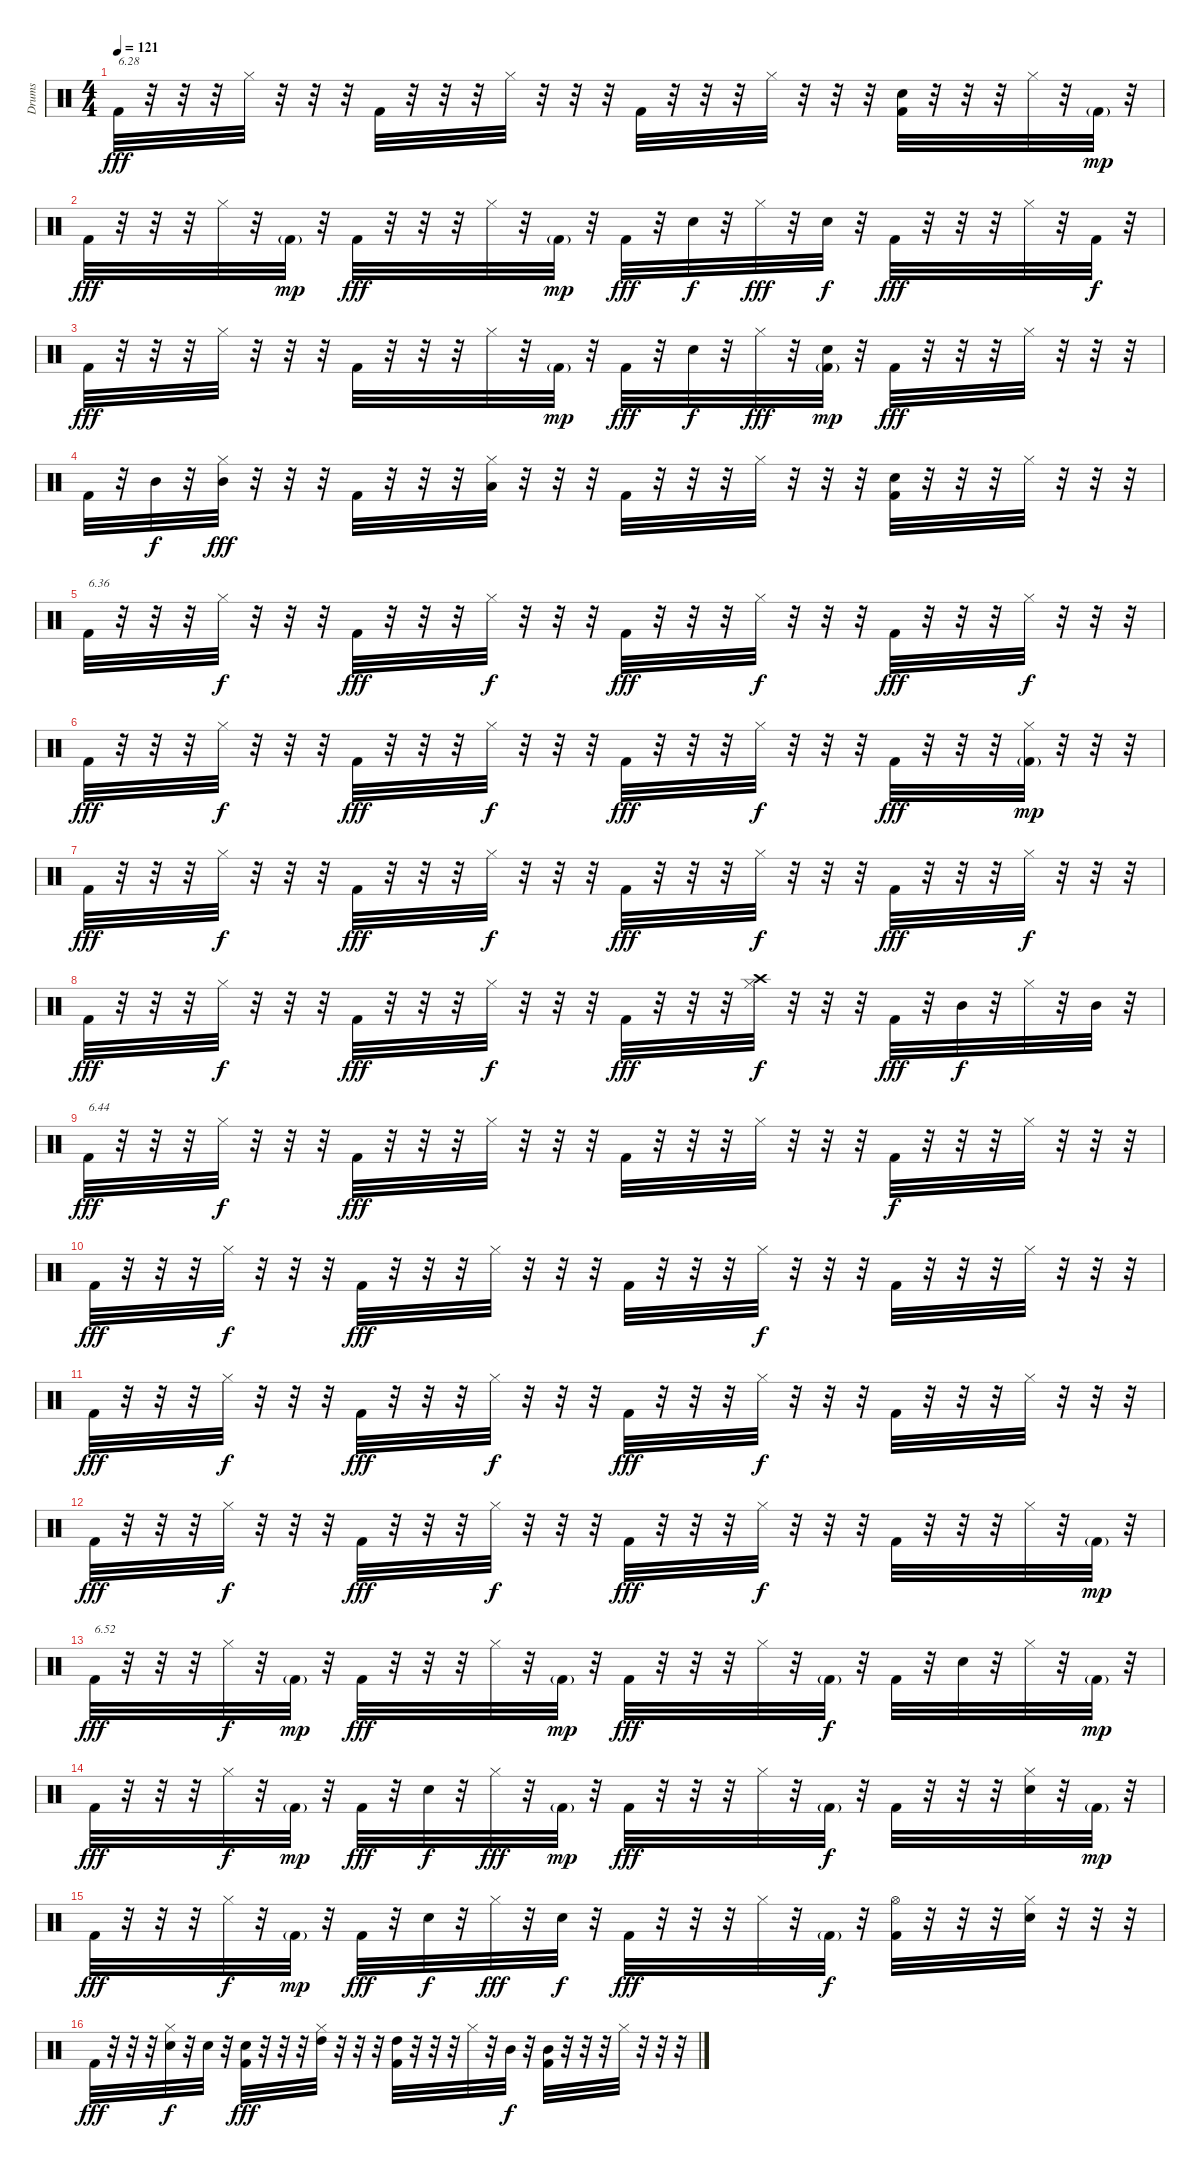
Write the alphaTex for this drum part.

\track ("Drums" "Drums") {instrument percussion}
\staff {score}
\articulation defaults
\ts (4 4)
\tempo 121
\clef neutral
\ks c "Kick (hit) 2".32{txt "6.28" dy fff}
r.32 r.32 r.32 "Hi-Hat (closed)".32 r.32 r.32 r.32 "Kick (hit) 2".32 r.32 r.32 r.32 "Hi-Hat (closed)".32 r.32 r.32 r.32 "Kick (hit) 2".32 r.32 r.32 r.32 "Hi-Hat (closed)".32 r.32 r.32 r.32 ("Kick (hit) 2" "Snare (hit) 2").32 r.32 r.32 r.32 "Hi-Hat (closed)".32 r.32 "Kick (hit) 2"{g}.32{dy mp} r.32 |
"Kick (hit) 2".32{dy fff} r.32 r.32 r.32 "Hi-Hat (closed)".32 r.32 "Kick (hit) 2"{g}.32{dy mp} r.32 "Kick (hit) 2".32{dy fff} r.32 r.32 r.32 "Hi-Hat (closed)".32 r.32 "Kick (hit) 2"{g}.32{dy mp} r.32 "Kick (hit) 2".32{dy fff} r.32 "Snare (hit) 2".32{dy f} r.32 "Hi-Hat (closed)".32{dy fff} r.32 "Snare (hit) 2".32{dy f} r.32 "Kick (hit) 2".32{dy fff} r.32 r.32 r.32 "Hi-Hat (closed)".32 r.32 "Kick (hit) 2".32{dy f} r.32 |
"Kick (hit) 2".32{dy fff} r.32 r.32 r.32 "Hi-Hat (closed)".32 r.32 r.32 r.32 "Kick (hit) 2".32 r.32 r.32 r.32 "Hi-Hat (closed)".32 r.32 "Kick (hit) 2"{g}.32{dy mp} r.32 "Kick (hit) 2".32{dy fff} r.32 "Snare (hit) 2".32{dy f} r.32 "Hi-Hat (closed)".32{dy fff} r.32 ("Kick (hit) 2"{g} "Snare (hit) 2").32{dy mp} r.32 "Kick (hit) 2".32{dy fff} r.32 r.32 r.32 "Hi-Hat (closed)".32 r.32 r.32 r.32 |
"Kick (hit) 2".32 r.32 "Mid Tom (hit)".32{dy f} r.32 ("Hi-Hat (closed)" "Mid Tom (hit)").32{dy fff} r.32 r.32 r.32 "Kick (hit) 2".32 r.32 r.32 r.32 ("Hi-Hat (closed)" "Low Tom (hit)").32 r.32 r.32 r.32 "Kick (hit) 2".32 r.32 r.32 r.32 "Hi-Hat (closed)".32 r.32 r.32 r.32 ("Kick (hit) 2" "Snare (hit) 2").32 r.32 r.32 r.32 "Hi-Hat (closed)".32 r.32 r.32 r.32 |
"Kick (hit) 2".32{txt "6.36"} r.32 r.32 r.32 "Hi-Hat (closed)".32{dy f} r.32 r.32 r.32 "Kick (hit) 2".32{dy fff} r.32 r.32 r.32 "Hi-Hat (closed)".32{dy f} r.32 r.32 r.32 "Kick (hit) 2".32{dy fff} r.32 r.32 r.32 "Hi-Hat (closed)".32{dy f} r.32 r.32 r.32 "Kick (hit) 2".32{dy fff} r.32 r.32 r.32 "Hi-Hat (closed)".32{dy f} r.32 r.32 r.32 |
"Kick (hit) 2".32{dy fff} r.32 r.32 r.32 "Hi-Hat (closed)".32{dy f} r.32 r.32 r.32 "Kick (hit) 2".32{dy fff} r.32 r.32 r.32 "Hi-Hat (closed)".32{dy f} r.32 r.32 r.32 "Kick (hit) 2".32{dy fff} r.32 r.32 r.32 "Hi-Hat (closed)".32{dy f} r.32 r.32 r.32 "Kick (hit) 2".32{dy fff} r.32 r.32 r.32 ("Hi-Hat (closed)" "Kick (hit) 2"{g}).32{dy mp} r.32 r.32 r.32 |
"Kick (hit) 2".32{dy fff} r.32 r.32 r.32 "Hi-Hat (closed)".32{dy f} r.32 r.32 r.32 "Kick (hit) 2".32{dy fff} r.32 r.32 r.32 "Hi-Hat (closed)".32{dy f} r.32 r.32 r.32 "Kick (hit) 2".32{dy fff} r.32 r.32 r.32 "Hi-Hat (closed)".32{dy f} r.32 r.32 r.32 "Kick (hit) 2".32{dy fff} r.32 r.32 r.32 "Hi-Hat (closed)".32{dy f} r.32 r.32 r.32 |
"Kick (hit) 2".32{dy fff} r.32 r.32 r.32 "Hi-Hat (closed)".32{dy f} r.32 r.32 r.32 "Kick (hit) 2".32{dy fff} r.32 r.32 r.32 "Hi-Hat (closed)".32{dy f} r.32 r.32 r.32 "Kick (hit) 2".32{dy fff} r.32 r.32 r.32 ("Hi-Hat (closed)" "Crash high (hit)").32{dy f} r.32 r.32 r.32 "Kick (hit) 2".32{dy fff} r.32 "Mid Tom (hit)".32{dy f} r.32 "Hi-Hat (closed)".32 r.32 "Mid Tom (hit)".32 r.32 |
"Kick (hit) 2".32{txt "6.44" dy fff} r.32 r.32 r.32 "Hi-Hat (closed)".32{dy f} r.32 r.32 r.32 "Kick (hit) 2".32{dy fff} r.32 r.32 r.32 "Hi-Hat (closed)".32 r.32 r.32 r.32 "Kick (hit) 2".32 r.32 r.32 r.32 "Hi-Hat (closed)".32 r.32 r.32 r.32 "Kick (hit) 2".32{dy f} r.32 r.32 r.32 "Hi-Hat (closed)".32 r.32 r.32 r.32 |
"Kick (hit) 2".32{dy fff} r.32 r.32 r.32 "Hi-Hat (closed)".32{dy f} r.32 r.32 r.32 "Kick (hit) 2".32{dy fff} r.32 r.32 r.32 "Hi-Hat (closed)".32 r.32 r.32 r.32 "Kick (hit) 2".32 r.32 r.32 r.32 "Hi-Hat (closed)".32{dy f} r.32 r.32 r.32 "Kick (hit) 2".32 r.32 r.32 r.32 "Hi-Hat (closed)".32 r.32 r.32 r.32 |
"Kick (hit) 2".32{dy fff} r.32 r.32 r.32 "Hi-Hat (closed)".32{dy f} r.32 r.32 r.32 "Kick (hit) 2".32{dy fff} r.32 r.32 r.32 "Hi-Hat (closed)".32{dy f} r.32 r.32 r.32 "Kick (hit) 2".32{dy fff} r.32 r.32 r.32 "Hi-Hat (closed)".32{dy f} r.32 r.32 r.32 "Kick (hit) 2".32 r.32 r.32 r.32 "Hi-Hat (closed)".32 r.32 r.32 r.32 |
"Kick (hit) 2".32{dy fff} r.32 r.32 r.32 "Hi-Hat (closed)".32{dy f} r.32 r.32 r.32 "Kick (hit) 2".32{dy fff} r.32 r.32 r.32 "Hi-Hat (closed)".32{dy f} r.32 r.32 r.32 "Kick (hit) 2".32{dy fff} r.32 r.32 r.32 "Hi-Hat (closed)".32{dy f} r.32 r.32 r.32 "Kick (hit) 2".32 r.32 r.32 r.32 "Hi-Hat (closed)".32 r.32 "Kick (hit) 2"{g}.32{dy mp} r.32 |
"Kick (hit) 2".32{txt "6.52" dy fff} r.32 r.32 r.32 "Hi-Hat (closed)".32{dy f} r.32 "Kick (hit) 2"{g}.32{dy mp} r.32 "Kick (hit) 2".32{dy fff} r.32 r.32 r.32 "Hi-Hat (closed)".32 r.32 "Kick (hit) 2"{g}.32{dy mp} r.32 "Kick (hit) 2".32{dy fff} r.32 r.32 r.32 "Hi-Hat (closed)".32 r.32 "Kick (hit) 2"{g}.32{dy f} r.32 "Kick (hit) 2".32 r.32 "Snare (hit) 2".32 r.32 "Hi-Hat (closed)".32 r.32 "Kick (hit) 2"{g}.32{dy mp} r.32 |
"Kick (hit) 2".32{dy fff} r.32 r.32 r.32 "Hi-Hat (closed)".32{dy f} r.32 "Kick (hit) 2"{g}.32{dy mp} r.32 "Kick (hit) 2".32{dy fff} r.32 "Snare (hit) 2".32{dy f} r.32 "Hi-Hat (closed)".32{dy fff} r.32 "Kick (hit) 2"{g}.32{dy mp} r.32 "Kick (hit) 2".32{dy fff} r.32 r.32 r.32 "Hi-Hat (closed)".32 r.32 "Kick (hit) 2"{g}.32{dy f} r.32 "Kick (hit) 2".32 r.32 r.32 r.32 ("Hi-Hat (closed)" "Snare (hit) 2").32 r.32 "Kick (hit) 2"{g}.32{dy mp} r.32 |
"Kick (hit) 2".32{dy fff} r.32 r.32 r.32 "Hi-Hat (closed)".32{dy f} r.32 "Kick (hit) 2"{g}.32{dy mp} r.32 "Kick (hit) 2".32{dy fff} r.32 "Snare (hit) 2".32{dy f} r.32 "Hi-Hat (closed)".32{dy fff} r.32 "Snare (hit) 2".32{dy f} r.32 "Kick (hit) 2".32{dy fff} r.32 r.32 r.32 "Hi-Hat (closed)".32 r.32 "Kick (hit) 2"{g}.32{dy f} r.32 ("Hi-Hat (open)" "Kick (hit) 2").32 r.32 r.32 r.32 ("Hi-Hat (closed)" "Snare (hit) 2").32 r.32 r.32 r.32 |
"Kick (hit) 2".32{dy fff} r.32 r.32 r.32 ("Hi-Hat (closed)" "Snare (hit) 2").32{dy f} r.32 "Snare (hit) 2".32 r.32 ("Kick (hit) 2" "Snare (hit) 2").32{dy fff} r.32 r.32 r.32 ("Hi-Hat (closed)" "High Tom (hit)").32 r.32 r.32 r.32 ("Kick (hit) 2" "High Tom (hit)").32 r.32 r.32 r.32 "Hi-Hat (closed)".32 r.32 "Mid Tom (hit)".32{dy f} r.32 ("Kick (hit) 2" "Mid Tom (hit)").32 r.32 r.32 r.32 "Hi-Hat (closed)".32 r.32 r.32 r.32
